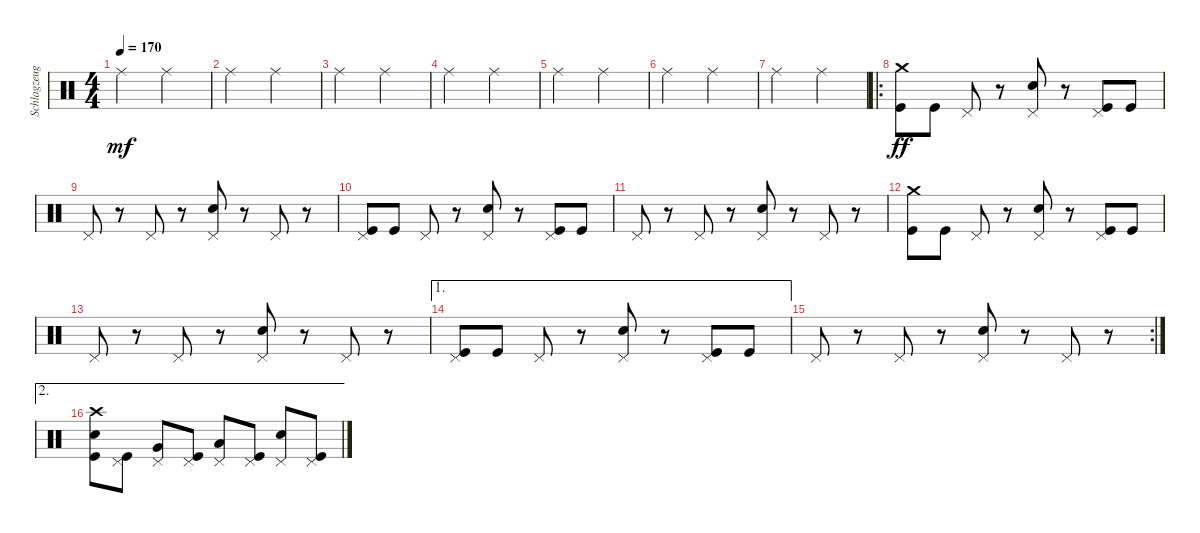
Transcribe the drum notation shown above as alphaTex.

\track ("Schlagzeug" "Schlagzeug") {instrument percussion}
\staff {score}
\articulation defaults
\ts (4 4)
\tempo 170
\clef neutral
\ks c "Ride (middle)".2{dy mf} "Ride (middle)".2
|
"Ride (middle)".2 "Ride (middle)".2 |
"Ride (middle)".2 "Ride (middle)".2 |
"Ride (middle)".2 "Ride (middle)".2 |
"Ride (middle)".2 "Ride (middle)".2 |
"Ride (middle)".2 "Ride (middle)".2 |
"Ride (middle)".2 "Ride (middle)".2 |
\ro
("Crash medium (hit)" "Kick (hit)").8{dy ff} "Kick (hit)".8 "Pedal Hi-Hat (hit)".8 r.8 ("Pedal Hi-Hat (hit)" "Snare (hit) 2").8 r.8 ("Pedal Hi-Hat (hit)" "Kick (hit)").8 "Kick (hit)".8 |
"Pedal Hi-Hat (hit)".8 r.8 "Pedal Hi-Hat (hit)".8 r.8 ("Pedal Hi-Hat (hit)" "Snare (hit) 2").8 r.8 "Pedal Hi-Hat (hit)".8 r.8 |
("Pedal Hi-Hat (hit)" "Kick (hit)").8 "Kick (hit)".8 "Pedal Hi-Hat (hit)".8 r.8 ("Pedal Hi-Hat (hit)" "Snare (hit) 2").8 r.8 ("Pedal Hi-Hat (hit)" "Kick (hit)").8 "Kick (hit)".8 |
"Pedal Hi-Hat (hit)".8 r.8 "Pedal Hi-Hat (hit)".8 r.8 ("Pedal Hi-Hat (hit)" "Snare (hit) 2").8 r.8 "Pedal Hi-Hat (hit)".8 r.8 |
("Crash medium (hit)" "Kick (hit)").8 "Kick (hit)".8 "Pedal Hi-Hat (hit)".8 r.8 ("Pedal Hi-Hat (hit)" "Snare (hit) 2").8 r.8 ("Pedal Hi-Hat (hit)" "Kick (hit)").8 "Kick (hit)".8 |
"Pedal Hi-Hat (hit)".8 r.8 "Pedal Hi-Hat (hit)".8 r.8 ("Pedal Hi-Hat (hit)" "Snare (hit) 2").8 r.8 "Pedal Hi-Hat (hit)".8 r.8 |
\ae 1
("Pedal Hi-Hat (hit)" "Kick (hit)").8 "Kick (hit)".8 "Pedal Hi-Hat (hit)".8 r.8 ("Pedal Hi-Hat (hit)" "Snare (hit) 2").8 r.8 ("Pedal Hi-Hat (hit)" "Kick (hit)").8 "Kick (hit)".8 |
\rc 2 "Pedal Hi-Hat (hit)".8
r.8 "Pedal Hi-Hat (hit)".8 r.8 ("Pedal Hi-Hat (hit)" "Snare (hit) 2").8 r.8 "Pedal Hi-Hat (hit)".8 r.8 |
\ae 2
("Crash high (hit)" "Snare (hit) 2" "Kick (hit)").8 ("Pedal Hi-Hat (hit)" "Kick (hit)").8 ("Pedal Hi-Hat (hit)" "Very Low Tom (hit)").8 ("Pedal Hi-Hat (hit)" "Kick (hit)").8 ("Pedal Hi-Hat (hit)" "Low Floor Tom (hit)").8 ("Pedal Hi-Hat (hit)" "Kick (hit)").8 ("Pedal Hi-Hat (hit)" "Snare (hit) 2").8 ("Pedal Hi-Hat (hit)" "Kick (hit)").8
